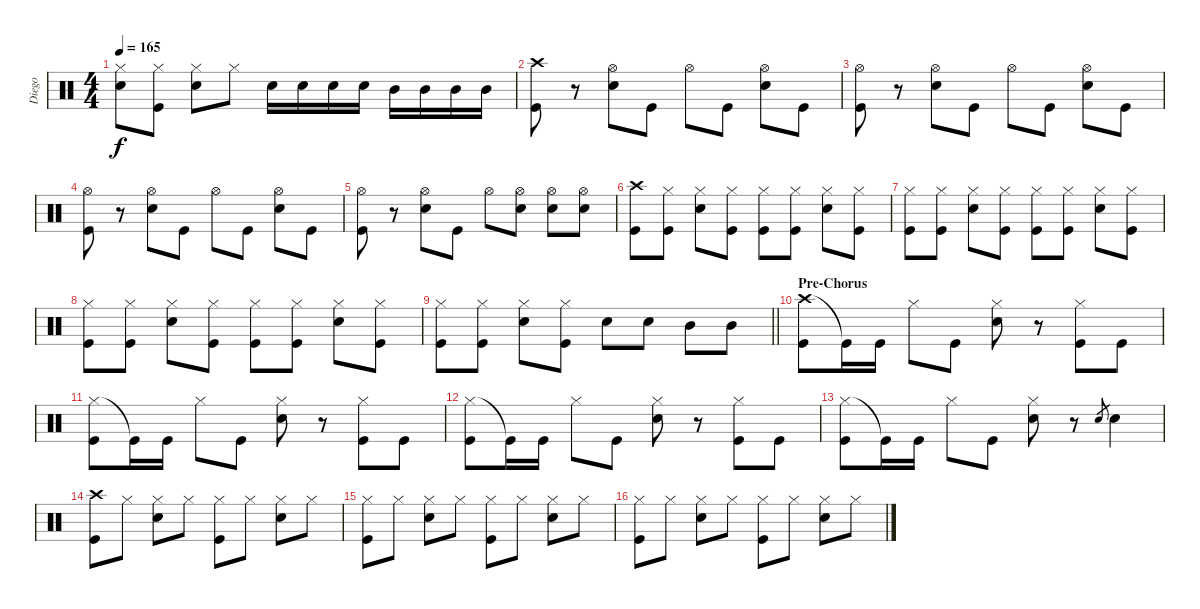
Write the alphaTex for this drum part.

\track ("Diego" "Diego") {instrument percussion}
\staff {score}
\articulation defaults
\ts (4 4)
\tempo 165
\clef neutral
\ks c
("Hi-Hat (closed)" "Snare (hit) 2").8{dy f} ("Hi-Hat (closed)" "Kick (hit)").8 ("Hi-Hat (closed)" "Snare (hit) 2").8 "Hi-Hat (closed)".8 "Snare (hit) 2".16 "Snare (hit) 2".16 "Snare (hit) 2".16 "Snare (hit) 2".16 "Mid Tom (hit)".16 "Mid Tom (hit)".16 "Mid Tom (hit)".16 "Mid Tom (hit)".16 |
("Crash high (hit)" "Kick (hit)").8 r.8 ("Hi-Hat (open)" "Snare (hit) 2").8 "Kick (hit)".8 "Hi-Hat (open)".8 "Kick (hit)".8 ("Hi-Hat (open)" "Snare (hit) 2").8 "Kick (hit)".8 |
("Hi-Hat (open)" "Kick (hit)").8 r.8 ("Hi-Hat (open)" "Snare (hit) 2").8 "Kick (hit)".8 "Hi-Hat (open)".8 "Kick (hit)".8 ("Hi-Hat (open)" "Snare (hit) 2").8 "Kick (hit)".8 |
("Hi-Hat (open)" "Kick (hit)").8 r.8 ("Hi-Hat (open)" "Snare (hit) 2").8 "Kick (hit)".8 "Hi-Hat (open)".8 "Kick (hit)".8 ("Hi-Hat (open)" "Snare (hit) 2").8 "Kick (hit)".8 |
("Hi-Hat (open)" "Kick (hit)").8 r.8 ("Hi-Hat (open)" "Snare (hit) 2").8 "Kick (hit)".8 "Hi-Hat (open)".8 ("Hi-Hat (open)" "Snare (hit) 2").8 ("Hi-Hat (open)" "Snare (hit) 2").8 ("Hi-Hat (open)" "Snare (hit) 2").8 |
("Crash high (hit)" "Kick (hit)").8 ("Hi-Hat (closed)" "Kick (hit)").8 ("Hi-Hat (closed)" "Snare (hit) 2").8 ("Hi-Hat (closed)" "Kick (hit)").8 ("Hi-Hat (closed)" "Kick (hit)").8 ("Hi-Hat (closed)" "Kick (hit)").8 ("Hi-Hat (closed)" "Snare (hit) 2").8 ("Hi-Hat (closed)" "Kick (hit)").8 |
("Hi-Hat (closed)" "Kick (hit)").8 ("Hi-Hat (closed)" "Kick (hit)").8 ("Hi-Hat (closed)" "Snare (hit) 2").8 ("Hi-Hat (closed)" "Kick (hit)").8 ("Hi-Hat (closed)" "Kick (hit)").8 ("Hi-Hat (closed)" "Kick (hit)").8 ("Hi-Hat (closed)" "Snare (hit) 2").8 ("Hi-Hat (closed)" "Kick (hit)").8 |
("Hi-Hat (closed)" "Kick (hit)").8 ("Hi-Hat (closed)" "Kick (hit)").8 ("Hi-Hat (closed)" "Snare (hit) 2").8 ("Hi-Hat (closed)" "Kick (hit)").8 ("Hi-Hat (closed)" "Kick (hit)").8 ("Hi-Hat (closed)" "Kick (hit)").8 ("Hi-Hat (closed)" "Snare (hit) 2").8 ("Hi-Hat (closed)" "Kick (hit)").8 |
\barLineRight lightlight
("Hi-Hat (closed)" "Kick (hit)").8 ("Hi-Hat (closed)" "Kick (hit)").8 ("Hi-Hat (closed)" "Snare (hit) 2").8 ("Hi-Hat (closed)" "Kick (hit)").8 "Snare (hit) 2".8 "Snare (hit) 2".8 "Mid Tom (hit)".8 "Mid Tom (hit)".8 |
\section ("" "Pre-Chorus")
("Crash high (hit)" "Kick (hit)").8 "Kick (hit)"{t}.16 "Kick (hit)".16 "Hi-Hat (closed)".8 "Kick (hit)".8 ("Hi-Hat (closed)" "Snare (hit) 2").8 r.8 ("Hi-Hat (closed)" "Kick (hit)").8 "Kick (hit)".8 |
("Hi-Hat (closed)" "Kick (hit)").8 "Kick (hit)"{t}.16 "Kick (hit)".16 "Hi-Hat (closed)".8 "Kick (hit)".8 ("Hi-Hat (closed)" "Snare (hit) 2").8 r.8 ("Hi-Hat (closed)" "Kick (hit)").8 "Kick (hit)".8 |
("Hi-Hat (closed)" "Kick (hit)").8 "Kick (hit)"{t}.16 "Kick (hit)".16 "Hi-Hat (closed)".8 "Kick (hit)".8 ("Hi-Hat (closed)" "Snare (hit) 2").8 r.8 ("Hi-Hat (closed)" "Kick (hit)").8 "Kick (hit)".8 |
("Hi-Hat (closed)" "Kick (hit)").8 "Kick (hit)"{t}.16 "Kick (hit)".16 "Hi-Hat (closed)".8 "Kick (hit)".8 ("Hi-Hat (closed)" "Snare (hit) 2").8 r.8 "Snare (hit) 2".8{gr} "Snare (hit) 2".4 |
("Crash high (hit)" "Kick (hit)").8 "Hi-Hat (closed)".8 ("Hi-Hat (closed)" "Snare (hit) 2").8 "Hi-Hat (closed)".8 ("Hi-Hat (closed)" "Kick (hit)").8 "Hi-Hat (closed)".8 ("Hi-Hat (closed)" "Snare (hit) 2").8 "Hi-Hat (closed)".8 |
("Hi-Hat (closed)" "Kick (hit)").8 "Hi-Hat (closed)".8 ("Hi-Hat (closed)" "Snare (hit) 2").8 "Hi-Hat (closed)".8 ("Hi-Hat (closed)" "Kick (hit)").8 "Hi-Hat (closed)".8 ("Hi-Hat (closed)" "Snare (hit) 2").8 "Hi-Hat (closed)".8 |
("Hi-Hat (closed)" "Kick (hit)").8 "Hi-Hat (closed)".8 ("Hi-Hat (closed)" "Snare (hit) 2").8 "Hi-Hat (closed)".8 ("Hi-Hat (closed)" "Kick (hit)").8 "Hi-Hat (closed)".8 ("Hi-Hat (closed)" "Snare (hit) 2").8 "Hi-Hat (closed)".8
